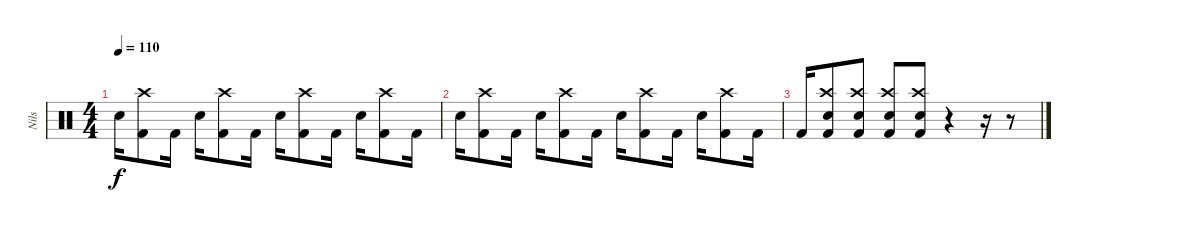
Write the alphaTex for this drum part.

\track ("Nils" "Nils") {instrument percussion}
\staff {score}
\articulation defaults
\ts (4 4)
\tempo 110
\clef neutral
\ks c "Snare (hit) 2".16{dy f}
("Crash high (hit)" "Kick (hit) 2").8 "Kick (hit) 2".16 "Snare (hit) 2".16 ("Crash high (hit)" "Kick (hit) 2").8 "Kick (hit) 2".16 "Snare (hit) 2".16 ("Crash high (hit)" "Kick (hit) 2").8 "Kick (hit) 2".16 "Snare (hit) 2".16 ("Crash high (hit)" "Kick (hit) 2").8 "Kick (hit) 2".16 |
"Snare (hit) 2".16 ("Crash high (hit)" "Kick (hit) 2").8 "Kick (hit) 2".16 "Snare (hit) 2".16 ("Crash high (hit)" "Kick (hit) 2").8 "Kick (hit) 2".16 "Snare (hit) 2".16 ("Crash high (hit)" "Kick (hit) 2").8 "Kick (hit) 2".16 "Snare (hit) 2".16 ("Crash high (hit)" "Kick (hit) 2").8 "Kick (hit) 2".16 |
"Kick (hit) 2".16 ("Crash high (hit)" "Snare (hit) 2" "Kick (hit) 2").8 ("Crash high (hit)" "Snare (hit) 2" "Kick (hit) 2").8 ("Crash high (hit)" "Snare (hit) 2" "Kick (hit) 2").8 ("Crash high (hit)" "Snare (hit) 2" "Kick (hit) 2").8 r.4 r.16 r.8
